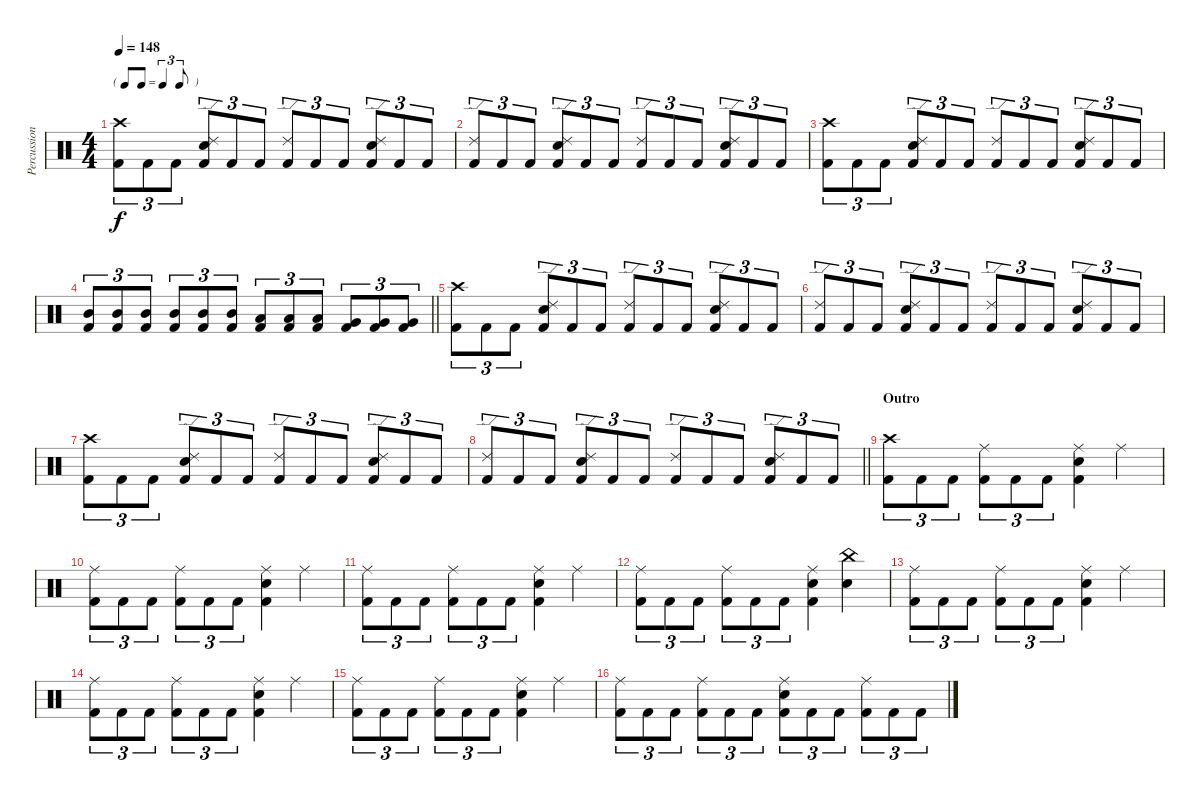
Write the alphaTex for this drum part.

\track ("Percussion" "Percussion") {instrument percussion}
\staff {score}
\articulation defaults
\ts (4 4)
\tf triplet8th
\tempo 148
\clef neutral
\ks c
("Crash high (hit)" "Kick (hit) 2").8{tu (3 2) dy f} "Kick (hit) 2".8{tu (3 2)} "Kick (hit) 2".8{tu (3 2)} ("Ride (edge) 2" "Snare (hit) 2" "Kick (hit) 2").8{tu (3 2)} "Kick (hit) 2".8{tu (3 2)} "Kick (hit) 2".8{tu (3 2)} ("Ride (edge) 2" "Kick (hit) 2").8{tu (3 2)} "Kick (hit) 2".8{tu (3 2)} "Kick (hit) 2".8{tu (3 2)} ("Ride (edge) 2" "Snare (hit) 2" "Kick (hit) 2").8{tu (3 2)} "Kick (hit) 2".8{tu (3 2)} "Kick (hit) 2".8{tu (3 2)} |
("Ride (edge) 2" "Kick (hit) 2").8{tu (3 2)} "Kick (hit) 2".8{tu (3 2)} "Kick (hit) 2".8{tu (3 2)} ("Ride (edge) 2" "Snare (hit) 2" "Kick (hit) 2").8{tu (3 2)} "Kick (hit) 2".8{tu (3 2)} "Kick (hit) 2".8{tu (3 2)} ("Ride (edge) 2" "Kick (hit) 2").8{tu (3 2)} "Kick (hit) 2".8{tu (3 2)} "Kick (hit) 2".8{tu (3 2)} ("Ride (edge) 2" "Snare (hit) 2" "Kick (hit) 2").8{tu (3 2)} "Kick (hit) 2".8{tu (3 2)} "Kick (hit) 2".8{tu (3 2)} |
("Crash high (hit)" "Kick (hit) 2").8{tu (3 2)} "Kick (hit) 2".8{tu (3 2)} "Kick (hit) 2".8{tu (3 2)} ("Ride (edge) 2" "Snare (hit) 2" "Kick (hit) 2").8{tu (3 2)} "Kick (hit) 2".8{tu (3 2)} "Kick (hit) 2".8{tu (3 2)} ("Ride (edge) 2" "Kick (hit) 2").8{tu (3 2)} "Kick (hit) 2".8{tu (3 2)} "Kick (hit) 2".8{tu (3 2)} ("Ride (edge) 2" "Snare (hit) 2" "Kick (hit) 2").8{tu (3 2)} "Kick (hit) 2".8{tu (3 2)} "Kick (hit) 2".8{tu (3 2)} |
\barLineRight lightlight
("Mid Tom (hit)" "Kick (hit) 2").8{tu (3 2)} ("Mid Tom (hit)" "Kick (hit) 2").8{tu (3 2)} ("Mid Tom (hit)" "Kick (hit) 2").8{tu (3 2)} ("Mid Tom (hit)" "Kick (hit) 2").8{tu (3 2)} ("Mid Tom (hit)" "Kick (hit) 2").8{tu (3 2)} ("Mid Tom (hit)" "Kick (hit) 2").8{tu (3 2)} ("Low Tom (hit)" "Kick (hit) 2").8{tu (3 2)} ("Low Tom (hit)" "Kick (hit) 2").8{tu (3 2)} ("Low Tom (hit)" "Kick (hit) 2").8{tu (3 2)} ("Very Low Tom (hit)" "Kick (hit) 2").8{tu (3 2)} ("Very Low Tom (hit)" "Kick (hit) 2").8{tu (3 2)} ("Very Low Tom (hit)" "Kick (hit) 2").8{tu (3 2)} |
("Crash high (hit)" "Kick (hit) 2").8{tu (3 2)} "Kick (hit) 2".8{tu (3 2)} "Kick (hit) 2".8{tu (3 2)} ("Ride (edge) 2" "Snare (hit) 2" "Kick (hit) 2").8{tu (3 2)} "Kick (hit) 2".8{tu (3 2)} "Kick (hit) 2".8{tu (3 2)} ("Ride (edge) 2" "Kick (hit) 2").8{tu (3 2)} "Kick (hit) 2".8{tu (3 2)} "Kick (hit) 2".8{tu (3 2)} ("Ride (edge) 2" "Snare (hit) 2" "Kick (hit) 2").8{tu (3 2)} "Kick (hit) 2".8{tu (3 2)} "Kick (hit) 2".8{tu (3 2)} |
("Ride (edge) 2" "Kick (hit) 2").8{tu (3 2)} "Kick (hit) 2".8{tu (3 2)} "Kick (hit) 2".8{tu (3 2)} ("Ride (edge) 2" "Snare (hit) 2" "Kick (hit) 2").8{tu (3 2)} "Kick (hit) 2".8{tu (3 2)} "Kick (hit) 2".8{tu (3 2)} ("Ride (edge) 2" "Kick (hit) 2").8{tu (3 2)} "Kick (hit) 2".8{tu (3 2)} "Kick (hit) 2".8{tu (3 2)} ("Ride (edge) 2" "Snare (hit) 2" "Kick (hit) 2").8{tu (3 2)} "Kick (hit) 2".8{tu (3 2)} "Kick (hit) 2".8{tu (3 2)} |
("Crash high (hit)" "Kick (hit) 2").8{tu (3 2)} "Kick (hit) 2".8{tu (3 2)} "Kick (hit) 2".8{tu (3 2)} ("Ride (edge) 2" "Snare (hit) 2" "Kick (hit) 2").8{tu (3 2)} "Kick (hit) 2".8{tu (3 2)} "Kick (hit) 2".8{tu (3 2)} ("Ride (edge) 2" "Kick (hit) 2").8{tu (3 2)} "Kick (hit) 2".8{tu (3 2)} "Kick (hit) 2".8{tu (3 2)} ("Ride (edge) 2" "Snare (hit) 2" "Kick (hit) 2").8{tu (3 2)} "Kick (hit) 2".8{tu (3 2)} "Kick (hit) 2".8{tu (3 2)} |
\barLineRight lightlight
("Ride (edge) 2" "Kick (hit) 2").8{tu (3 2)} "Kick (hit) 2".8{tu (3 2)} "Kick (hit) 2".8{tu (3 2)} ("Ride (edge) 2" "Snare (hit) 2" "Kick (hit) 2").8{tu (3 2)} "Kick (hit) 2".8{tu (3 2)} "Kick (hit) 2".8{tu (3 2)} ("Ride (edge) 2" "Kick (hit) 2").8{tu (3 2)} "Kick (hit) 2".8{tu (3 2)} "Kick (hit) 2".8{tu (3 2)} ("Ride (edge) 2" "Snare (hit) 2" "Kick (hit) 2").8{tu (3 2)} "Kick (hit) 2".8{tu (3 2)} "Kick (hit) 2".8{tu (3 2)} |
\section ("" "Outro")
("Crash high (hit)" "Kick (hit) 2").8{tu (3 2)} "Kick (hit) 2".8{tu (3 2)} "Kick (hit) 2".8{tu (3 2)} ("Ride (middle)" "Kick (hit) 2").8{tu (3 2)} "Kick (hit) 2".8{tu (3 2)} "Kick (hit) 2".8{tu (3 2)} ("Ride (middle)" "Snare (hit) 2" "Kick (hit) 2").4 "Ride (middle)".4 |
("Ride (middle)" "Kick (hit) 2").8{tu (3 2)} "Kick (hit) 2".8{tu (3 2)} "Kick (hit) 2".8{tu (3 2)} ("Ride (middle)" "Kick (hit) 2").8{tu (3 2)} "Kick (hit) 2".8{tu (3 2)} "Kick (hit) 2".8{tu (3 2)} ("Ride (middle)" "Snare (hit) 2" "Kick (hit) 2").4 "Ride (middle)".4 |
("Ride (middle)" "Kick (hit) 2").8{tu (3 2)} "Kick (hit) 2".8{tu (3 2)} "Kick (hit) 2".8{tu (3 2)} ("Ride (middle)" "Kick (hit) 2").8{tu (3 2)} "Kick (hit) 2".8{tu (3 2)} "Kick (hit) 2".8{tu (3 2)} ("Ride (middle)" "Snare (hit) 2" "Kick (hit) 2").4 "Ride (middle)".4 |
("Ride (middle)" "Kick (hit) 2").8{tu (3 2)} "Kick (hit) 2".8{tu (3 2)} "Kick (hit) 2".8{tu (3 2)} ("Ride (middle)" "Kick (hit) 2").8{tu (3 2)} "Kick (hit) 2".8{tu (3 2)} "Kick (hit) 2".8{tu (3 2)} ("Ride (middle)" "Snare (hit) 2" "Kick (hit) 2").4 ("China (hit)" "Snare (hit) 2").4 |
("Ride (middle)" "Kick (hit) 2").8{tu (3 2)} "Kick (hit) 2".8{tu (3 2)} "Kick (hit) 2".8{tu (3 2)} ("Ride (middle)" "Kick (hit) 2").8{tu (3 2)} "Kick (hit) 2".8{tu (3 2)} "Kick (hit) 2".8{tu (3 2)} ("Ride (middle)" "Snare (hit) 2" "Kick (hit) 2").4 "Ride (middle)".4 |
("Ride (middle)" "Kick (hit) 2").8{tu (3 2)} "Kick (hit) 2".8{tu (3 2)} "Kick (hit) 2".8{tu (3 2)} ("Ride (middle)" "Kick (hit) 2").8{tu (3 2)} "Kick (hit) 2".8{tu (3 2)} "Kick (hit) 2".8{tu (3 2)} ("Ride (middle)" "Snare (hit) 2" "Kick (hit) 2").4 "Ride (middle)".4 |
("Ride (middle)" "Kick (hit) 2").8{tu (3 2)} "Kick (hit) 2".8{tu (3 2)} "Kick (hit) 2".8{tu (3 2)} ("Ride (middle)" "Kick (hit) 2").8{tu (3 2)} "Kick (hit) 2".8{tu (3 2)} "Kick (hit) 2".8{tu (3 2)} ("Ride (middle)" "Snare (hit) 2" "Kick (hit) 2").4 "Ride (middle)".4 |
("Ride (middle)" "Kick (hit) 2").8{tu (3 2)} "Kick (hit) 2".8{tu (3 2)} "Kick (hit) 2".8{tu (3 2)} ("Ride (middle)" "Kick (hit) 2").8{tu (3 2)} "Kick (hit) 2".8{tu (3 2)} "Kick (hit) 2".8{tu (3 2)} ("Ride (middle)" "Snare (hit) 2" "Kick (hit) 2").8{tu (3 2)} "Kick (hit) 2".8{tu (3 2)} "Kick (hit) 2".8{tu (3 2)} ("Ride (middle)" "Kick (hit) 2").8{tu (3 2)} "Kick (hit) 2".8{tu (3 2)} "Kick (hit) 2".8{tu (3 2)}
